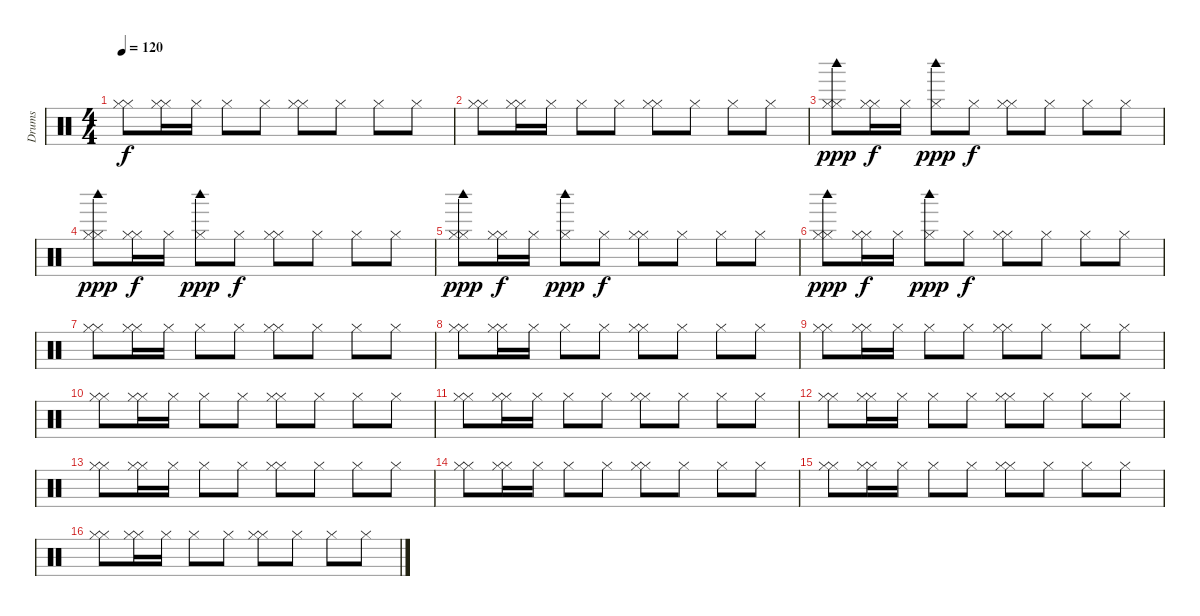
\track ("Drums" "Drums") {instrument percussion}
\staff {score}
\articulation defaults
\ts (4 4)
\tempo 120
\clef neutral
\ks c
("Hi-Hat (closed)" "Hi-Hat (closed)").8{dy f} ("Hi-Hat (closed)" "Hi-Hat (closed)").16 "Hi-Hat (closed)".16 "Hi-Hat (closed)".8 "Hi-Hat (closed)".8 ("Hi-Hat (closed)" "Hi-Hat (closed)").8 "Hi-Hat (closed)".8 "Hi-Hat (closed)".8 "Hi-Hat (closed)".8 |
("Hi-Hat (closed)" "Hi-Hat (closed)").8 ("Hi-Hat (closed)" "Hi-Hat (closed)").16 "Hi-Hat (closed)".16 "Hi-Hat (closed)".8 "Hi-Hat (closed)".8 ("Hi-Hat (closed)" "Hi-Hat (closed)").8 "Hi-Hat (closed)".8 "Hi-Hat (closed)".8 "Hi-Hat (closed)".8 |
("Hi-Hat (closed)" "Hi-Hat (closed)" "Woodblock high (hit)").8{dy ppp} ("Hi-Hat (closed)" "Hi-Hat (closed)").16{dy f} "Hi-Hat (closed)".16 ("Hi-Hat (closed)" "Woodblock high (hit)").8{dy ppp} "Hi-Hat (closed)".8{dy f} ("Hi-Hat (closed)" "Hi-Hat (closed)").8 "Hi-Hat (closed)".8 "Hi-Hat (closed)".8 "Hi-Hat (closed)".8 |
("Hi-Hat (closed)" "Hi-Hat (closed)" "Woodblock high (hit)").8{dy ppp} ("Hi-Hat (closed)" "Hi-Hat (closed)").16{dy f} "Hi-Hat (closed)".16 ("Hi-Hat (closed)" "Woodblock high (hit)").8{dy ppp} "Hi-Hat (closed)".8{dy f} ("Hi-Hat (closed)" "Hi-Hat (closed)").8 "Hi-Hat (closed)".8 "Hi-Hat (closed)".8 "Hi-Hat (closed)".8 |
("Hi-Hat (closed)" "Hi-Hat (closed)" "Woodblock high (hit)").8{dy ppp} ("Hi-Hat (closed)" "Hi-Hat (closed)").16{dy f} "Hi-Hat (closed)".16 ("Hi-Hat (closed)" "Woodblock high (hit)").8{dy ppp} "Hi-Hat (closed)".8{dy f} ("Hi-Hat (closed)" "Hi-Hat (closed)").8 "Hi-Hat (closed)".8 "Hi-Hat (closed)".8 "Hi-Hat (closed)".8 |
("Hi-Hat (closed)" "Hi-Hat (closed)" "Woodblock high (hit)").8{dy ppp} ("Hi-Hat (closed)" "Hi-Hat (closed)").16{dy f} "Hi-Hat (closed)".16 ("Hi-Hat (closed)" "Woodblock high (hit)").8{dy ppp} "Hi-Hat (closed)".8{dy f} ("Hi-Hat (closed)" "Hi-Hat (closed)").8 "Hi-Hat (closed)".8 "Hi-Hat (closed)".8 "Hi-Hat (closed)".8 |
("Hi-Hat (closed)" "Hi-Hat (closed)").8 ("Hi-Hat (closed)" "Hi-Hat (closed)").16 "Hi-Hat (closed)".16 "Hi-Hat (closed)".8 "Hi-Hat (closed)".8 ("Hi-Hat (closed)" "Hi-Hat (closed)").8 "Hi-Hat (closed)".8 "Hi-Hat (closed)".8 "Hi-Hat (closed)".8 |
("Hi-Hat (closed)" "Hi-Hat (closed)").8 ("Hi-Hat (closed)" "Hi-Hat (closed)").16 "Hi-Hat (closed)".16 "Hi-Hat (closed)".8 "Hi-Hat (closed)".8 ("Hi-Hat (closed)" "Hi-Hat (closed)").8 "Hi-Hat (closed)".8 "Hi-Hat (closed)".8 "Hi-Hat (closed)".8 |
("Hi-Hat (closed)" "Hi-Hat (closed)").8 ("Hi-Hat (closed)" "Hi-Hat (closed)").16 "Hi-Hat (closed)".16 "Hi-Hat (closed)".8 "Hi-Hat (closed)".8 ("Hi-Hat (closed)" "Hi-Hat (closed)").8 "Hi-Hat (closed)".8 "Hi-Hat (closed)".8 "Hi-Hat (closed)".8 |
("Hi-Hat (closed)" "Hi-Hat (closed)").8 ("Hi-Hat (closed)" "Hi-Hat (closed)").16 "Hi-Hat (closed)".16 "Hi-Hat (closed)".8 "Hi-Hat (closed)".8 ("Hi-Hat (closed)" "Hi-Hat (closed)").8 "Hi-Hat (closed)".8 "Hi-Hat (closed)".8 "Hi-Hat (closed)".8 |
("Hi-Hat (closed)" "Hi-Hat (closed)").8 ("Hi-Hat (closed)" "Hi-Hat (closed)").16 "Hi-Hat (closed)".16 "Hi-Hat (closed)".8 "Hi-Hat (closed)".8 ("Hi-Hat (closed)" "Hi-Hat (closed)").8 "Hi-Hat (closed)".8 "Hi-Hat (closed)".8 "Hi-Hat (closed)".8 |
("Hi-Hat (closed)" "Hi-Hat (closed)").8 ("Hi-Hat (closed)" "Hi-Hat (closed)").16 "Hi-Hat (closed)".16 "Hi-Hat (closed)".8 "Hi-Hat (closed)".8 ("Hi-Hat (closed)" "Hi-Hat (closed)").8 "Hi-Hat (closed)".8 "Hi-Hat (closed)".8 "Hi-Hat (closed)".8 |
("Hi-Hat (closed)" "Hi-Hat (closed)").8 ("Hi-Hat (closed)" "Hi-Hat (closed)").16 "Hi-Hat (closed)".16 "Hi-Hat (closed)".8 "Hi-Hat (closed)".8 ("Hi-Hat (closed)" "Hi-Hat (closed)").8 "Hi-Hat (closed)".8 "Hi-Hat (closed)".8 "Hi-Hat (closed)".8 |
("Hi-Hat (closed)" "Hi-Hat (closed)").8 ("Hi-Hat (closed)" "Hi-Hat (closed)").16 "Hi-Hat (closed)".16 "Hi-Hat (closed)".8 "Hi-Hat (closed)".8 ("Hi-Hat (closed)" "Hi-Hat (closed)").8 "Hi-Hat (closed)".8 "Hi-Hat (closed)".8 "Hi-Hat (closed)".8 |
("Hi-Hat (closed)" "Hi-Hat (closed)").8 ("Hi-Hat (closed)" "Hi-Hat (closed)").16 "Hi-Hat (closed)".16 "Hi-Hat (closed)".8 "Hi-Hat (closed)".8 ("Hi-Hat (closed)" "Hi-Hat (closed)").8 "Hi-Hat (closed)".8 "Hi-Hat (closed)".8 "Hi-Hat (closed)".8 |
("Hi-Hat (closed)" "Hi-Hat (closed)").8 ("Hi-Hat (closed)" "Hi-Hat (closed)").16 "Hi-Hat (closed)".16 "Hi-Hat (closed)".8 "Hi-Hat (closed)".8 ("Hi-Hat (closed)" "Hi-Hat (closed)").8 "Hi-Hat (closed)".8 "Hi-Hat (closed)".8 "Hi-Hat (closed)".8
